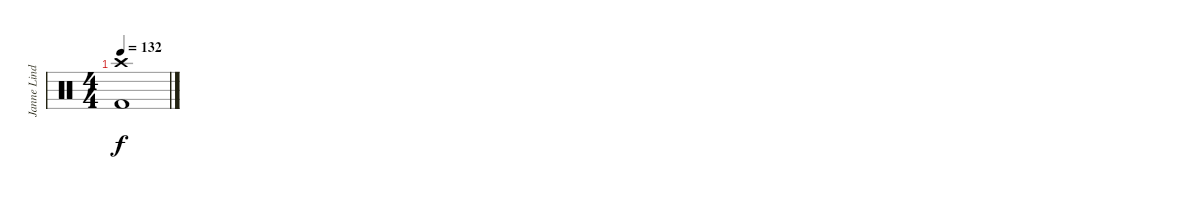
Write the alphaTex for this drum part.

\track ("Janne Lindh" "Janne Lind") {instrument percussion}
\staff {score}
\articulation defaults
\ts (4 4)
\tempo 132
\clef neutral
\ks c
("Kick (hit) 2" "Crash high (hit)").1{dy f}
